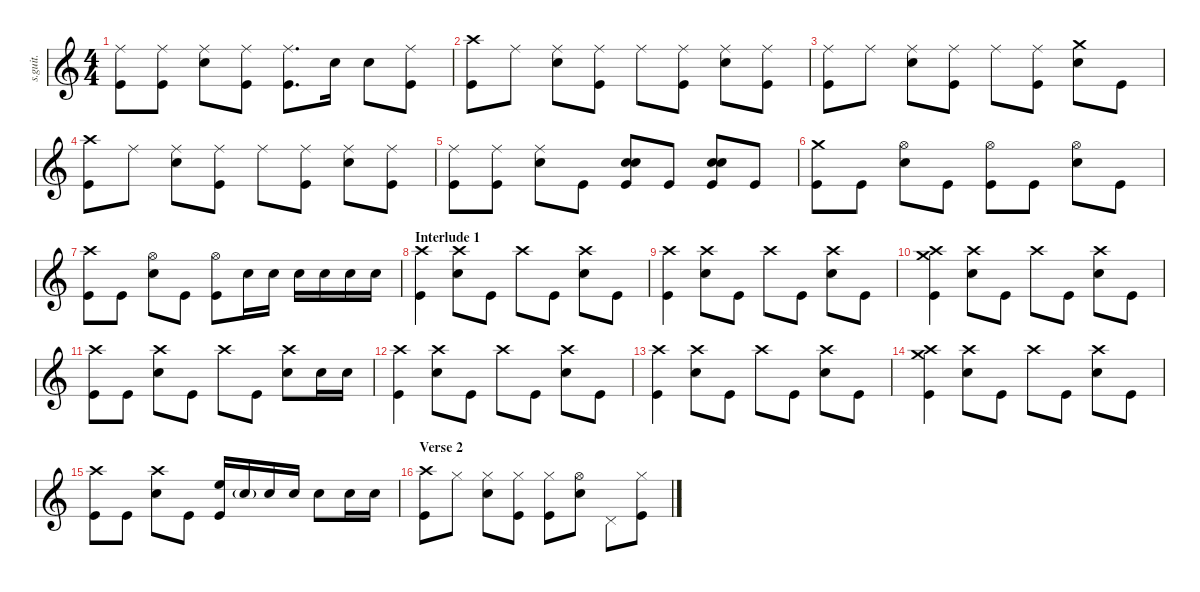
\defaultSystemsLayout 4
\hideDynamics
\bracketExtendMode nobrackets
\track ("Dave Grohl" "s.guit.") {instrument percussion}
\staff {score}
\articulation defaults
\ts (4 4)
\tempo (136 hide)
\clef g2
\ks c
("Ride (middle)" "Kick (hit)").8{dy f} ("Ride (middle)" "Kick (hit)").8 ("Ride (middle)" "Snare (hit) 2").8 ("Ride (middle)" "Kick (hit)").8 ("Ride (middle)" "Kick (hit)").8{d} "Snare (hit) 2".16 "Snare (hit) 2".8 ("Ride (middle)" "Kick (hit)").8 |
("Crash high (hit)" "Kick (hit)").8 "Ride (middle)".8{dy ppp} ("Ride (middle)" "Snare (hit) 2").8{dy f} ("Ride (middle)" "Kick (hit)").8 "Ride (middle)".8 ("Ride (middle)" "Kick (hit)").8 ("Ride (middle)" "Snare (hit) 2").8 ("Ride (middle)" "Kick (hit)").8 |
("Ride (middle)" "Kick (hit)").8 "Ride (middle)".8{dy ppp} ("Ride (middle)" "Snare (hit) 2").8{dy f} ("Ride (middle)" "Kick (hit)").8 "Ride (middle)".8 ("Ride (middle)" "Kick (hit)").8 ("Crash medium (hit)" "Snare (hit) 2").8 "Kick (hit)".8 |
("Crash high (hit)" "Kick (hit)").8 "Ride (middle)".8{dy ppp} ("Ride (middle)" "Snare (hit) 2").8{dy f} ("Ride (middle)" "Kick (hit)").8 "Ride (middle)".8 ("Ride (middle)" "Kick (hit)").8 ("Ride (middle)" "Snare (hit) 2").8 ("Ride (middle)" "Kick (hit)").8 |
("Ride (middle)" "Kick (hit)").8 ("Ride (middle)" "Kick (hit)").8 ("Ride (middle)" "Snare (hit) 2").8 "Kick (hit)".8 ("Snare (hit) 2" "Snare (hit) 2" "Kick (hit)").8{bd 30} "Kick (hit)".8 ("Snare (hit) 2" "Snare (hit) 2" "Kick (hit)").8{bd 30} "Kick (hit)".8 |
("Crash medium (hit)" "Kick (hit)").8 "Kick (hit)".8 ("Hi-Hat (open)" "Snare (hit) 2").8 "Kick (hit)".8 ("Hi-Hat (open)" "Kick (hit)").8 "Kick (hit)".8 ("Hi-Hat (open)" "Snare (hit) 2").8 "Kick (hit)".8 |
("Crash high (hit)" "Kick (hit)").8 "Kick (hit)".8 ("Hi-Hat (open)" "Snare (hit) 2").8 "Kick (hit)".8 ("Hi-Hat (open)" "Kick (hit)").8 "Snare (hit) 2".16 "Snare (hit) 2".16 "Snare (hit) 2".16 "Snare (hit) 2".16 "Snare (hit) 2".16 "Snare (hit) 2".16 |
\section ("" "Interlude 1")
("Crash high (hit)" "Kick (hit)").4 ("Crash high (hit)" "Snare (hit) 2").8 "Kick (hit)".8 "Crash high (hit)".8 "Kick (hit)".8 ("Crash high (hit)" "Snare (hit) 2").8 "Kick (hit)".8 |
("Crash high (hit)" "Kick (hit)").4 ("Crash high (hit)" "Snare (hit) 2").8 "Kick (hit)".8 "Crash high (hit)".8 "Kick (hit)".8 ("Crash high (hit)" "Snare (hit) 2").8 "Kick (hit)".8 |
("Crash high (hit)" "Crash medium (hit)" "Kick (hit)").4 ("Crash high (hit)" "Snare (hit) 2").8 "Kick (hit)".8 "Crash high (hit)".8 "Kick (hit)".8 ("Crash high (hit)" "Snare (hit) 2").8 "Kick (hit)".8 |
("Crash high (hit)" "Kick (hit)").8 "Kick (hit)".8 ("Crash high (hit)" "Snare (hit) 2").8 "Kick (hit)".8 "Crash high (hit)".8 "Kick (hit)".8 ("Crash high (hit)" "Snare (hit) 2").8 "Snare (hit) 2".16 "Snare (hit) 2".16 |
("Crash high (hit)" "Kick (hit)").4 ("Crash high (hit)" "Snare (hit) 2").8 "Kick (hit)".8 "Crash high (hit)".8 "Kick (hit)".8 ("Crash high (hit)" "Snare (hit) 2").8 "Kick (hit)".8 |
("Crash high (hit)" "Kick (hit)").4 ("Crash high (hit)" "Snare (hit) 2").8 "Kick (hit)".8 "Crash high (hit)".8 "Kick (hit)".8 ("Crash high (hit)" "Snare (hit) 2").8 "Kick (hit)".8 |
("Crash high (hit)" "Crash medium (hit)" "Kick (hit)").4 ("Crash high (hit)" "Snare (hit) 2").8 "Kick (hit)".8 "Crash high (hit)".8 "Kick (hit)".8 ("Crash high (hit)" "Snare (hit) 2").8 "Kick (hit)".8 |
("Crash high (hit)" "Kick (hit)").8 "Kick (hit)".8 ("Crash high (hit)" "Snare (hit) 2").8 "Kick (hit)".8 ("High Floor Tom (hit)" "Kick (hit)").16 "Snare (hit) 2"{g}.16{dy pp} "Snare (hit) 2".16{dy f} "Snare (hit) 2".16 "Snare (hit) 2".8 "Snare (hit) 2".16 "Snare (hit) 2".16 |
\section ("" "Verse 2")
("Crash high (hit)" "Kick (hit)").8 "Hi-Hat (closed)".8{dy ppp} ("Hi-Hat (closed)" "Snare (hit) 2").8{dy f} ("Hi-Hat (closed)" "Kick (hit)").8 ("Hi-Hat (closed)" "Kick (hit)").8 ("Hi-Hat (open)" "Snare (hit) 2").8 "Pedal Hi-Hat (hit)".8 ("Hi-Hat (closed)" "Kick (hit)").8
